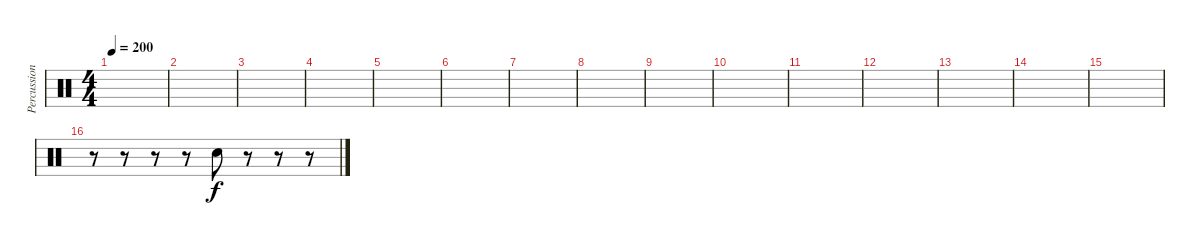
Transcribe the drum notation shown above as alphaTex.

\track ("Percussion" "Percussion") {instrument percussion}
\staff {score}
\articulation defaults
\ts (4 4)
\tempo 200
\clef neutral
\ks c
|
|
|
|
|
|
|
|
|
|
|
|
|
|
|
r.8 r.8 r.8 r.8 "Snare (hit) 2".8 r.8 r.8 r.8
